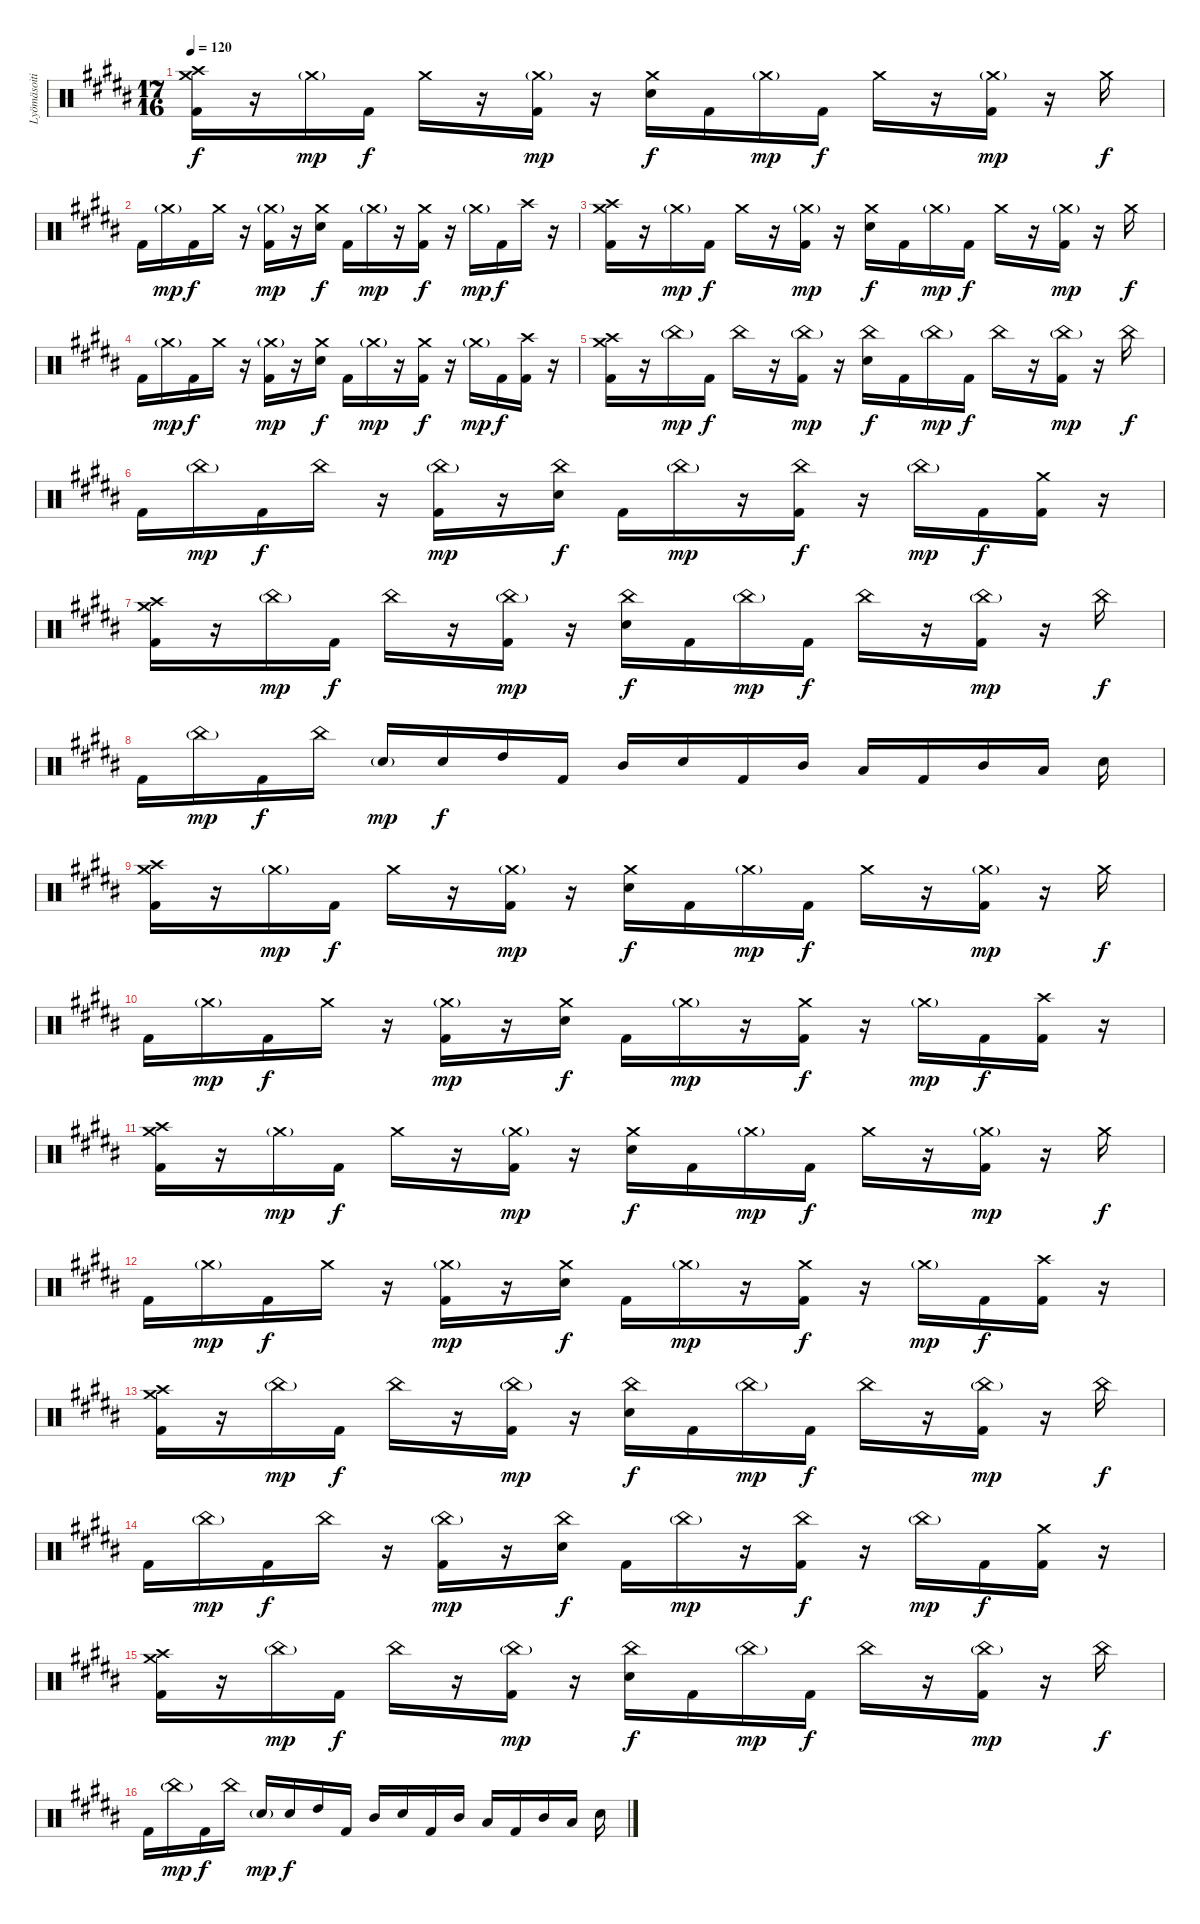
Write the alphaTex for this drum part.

\track ("Lyömäsoitin" "Lyömäsoiti") {instrument percussion}
\staff {score}
\articulation defaults
\ts (17 16)
\tempo 120
\clef neutral
\ks g#minor
("Crash medium (hit)" "Crash high (hit)" "Kick (hit) 2").16{dy f} r.16 "Crash medium (hit)"{g}.16{dy mp} "Kick (hit) 2".16{dy f} "Crash medium (hit)".16 r.16 ("Crash medium (hit)"{g} "Kick (hit) 2").16{dy mp} r.16 ("Crash medium (hit)" "Electric Snare (hit)").16{dy f} "Kick (hit) 2".16 "Crash medium (hit)"{g}.16{dy mp} "Kick (hit) 2".16{dy f} "Crash medium (hit)".16 r.16 ("Crash medium (hit)"{g} "Kick (hit) 2").16{dy mp} r.16 "Crash medium (hit)".16{dy f} |
"Kick (hit) 2".16 "Crash medium (hit)"{g}.16{dy mp} "Kick (hit) 2".16{dy f} "Crash medium (hit)".16 r.16 ("Crash medium (hit)"{g} "Kick (hit) 2").16{dy mp} r.16 ("Crash medium (hit)" "Electric Snare (hit)").16{dy f} "Kick (hit) 2".16 "Crash medium (hit)"{g}.16{dy mp} r.16 ("Crash medium (hit)" "Kick (hit) 2").16{dy f} r.16 "Crash medium (hit)"{g}.16{dy mp} "Kick (hit) 2".16{dy f} "Crash high (hit)".16 r.16 |
("Crash medium (hit)" "Crash high (hit)" "Kick (hit) 2").16 r.16 "Crash medium (hit)"{g}.16{dy mp} "Kick (hit) 2".16{dy f} "Crash medium (hit)".16 r.16 ("Crash medium (hit)"{g} "Kick (hit) 2").16{dy mp} r.16 ("Crash medium (hit)" "Electric Snare (hit)").16{dy f} "Kick (hit) 2".16 "Crash medium (hit)"{g}.16{dy mp} "Kick (hit) 2".16{dy f} "Crash medium (hit)".16 r.16 ("Crash medium (hit)"{g} "Kick (hit) 2").16{dy mp} r.16 "Crash medium (hit)".16{dy f} |
"Kick (hit) 2".16 "Crash medium (hit)"{g}.16{dy mp} "Kick (hit) 2".16{dy f} "Crash medium (hit)".16 r.16 ("Crash medium (hit)"{g} "Kick (hit) 2").16{dy mp} r.16 ("Crash medium (hit)" "Electric Snare (hit)").16{dy f} "Kick (hit) 2".16 "Crash medium (hit)"{g}.16{dy mp} r.16 ("Crash medium (hit)" "Kick (hit) 2").16{dy f} r.16 "Crash medium (hit)"{g}.16{dy mp} "Kick (hit) 2".16{dy f} ("Crash high (hit)" "Kick (hit) 2").16 r.16 |
("Crash medium (hit)" "Crash high (hit)" "Kick (hit) 2").16 r.16 "China (hit)"{g}.16{dy mp} "Kick (hit) 2".16{dy f} "China (hit)".16 r.16 ("China (hit)"{g} "Kick (hit) 2").16{dy mp} r.16 ("China (hit)" "Electric Snare (hit)").16{dy f} "Kick (hit) 2".16 "China (hit)"{g}.16{dy mp} "Kick (hit) 2".16{dy f} "China (hit)".16 r.16 ("China (hit)"{g} "Kick (hit) 2").16{dy mp} r.16 "China (hit)".16{dy f} |
"Kick (hit) 2".16 "China (hit)"{g}.16{dy mp} "Kick (hit) 2".16{dy f} "China (hit)".16 r.16 ("China (hit)"{g} "Kick (hit) 2").16{dy mp} r.16 ("China (hit)" "Electric Snare (hit)").16{dy f} "Kick (hit) 2".16 "China (hit)"{g}.16{dy mp} r.16 ("China (hit)" "Kick (hit) 2").16{dy f} r.16 "China (hit)"{g}.16{dy mp} "Kick (hit) 2".16{dy f} ("Crash medium (hit)" "Kick (hit) 2").16 r.16 |
("Crash medium (hit)" "Crash high (hit)" "Kick (hit) 2").16 r.16 "China (hit)"{g}.16{dy mp} "Kick (hit) 2".16{dy f} "China (hit)".16 r.16 ("China (hit)"{g} "Kick (hit) 2").16{dy mp} r.16 ("China (hit)" "Electric Snare (hit)").16{dy f} "Kick (hit) 2".16 "China (hit)"{g}.16{dy mp} "Kick (hit) 2".16{dy f} "China (hit)".16 r.16 ("China (hit)"{g} "Kick (hit) 2").16{dy mp} r.16 "China (hit)".16{dy f} |
"Kick (hit) 2".16 "China (hit)"{g}.16{dy mp} "Kick (hit) 2".16{dy f} "China (hit)".16 "Electric Snare (hit)"{g}.16{dy mp} "Electric Snare (hit)".16{dy f} "High Tom (hit)".16 "Kick (hit) 2".16 "Mid Tom (hit)".16 "Electric Snare (hit)".16 "Kick (hit) 2".16 "Mid Tom (hit)".16 "Low Tom (hit)".16 "Kick (hit) 2".16 "Mid Tom (hit)".16 "Low Tom (hit)".16 "Electric Snare (hit)".16 |
("Crash medium (hit)" "Crash high (hit)" "Kick (hit) 2").16 r.16 "Crash medium (hit)"{g}.16{dy mp} "Kick (hit) 2".16{dy f} "Crash medium (hit)".16 r.16 ("Crash medium (hit)"{g} "Kick (hit) 2").16{dy mp} r.16 ("Crash medium (hit)" "Electric Snare (hit)").16{dy f} "Kick (hit) 2".16 "Crash medium (hit)"{g}.16{dy mp} "Kick (hit) 2".16{dy f} "Crash medium (hit)".16 r.16 ("Crash medium (hit)"{g} "Kick (hit) 2").16{dy mp} r.16 "Crash medium (hit)".16{dy f} |
"Kick (hit) 2".16 "Crash medium (hit)"{g}.16{dy mp} "Kick (hit) 2".16{dy f} "Crash medium (hit)".16 r.16 ("Crash medium (hit)"{g} "Kick (hit) 2").16{dy mp} r.16 ("Crash medium (hit)" "Electric Snare (hit)").16{dy f} "Kick (hit) 2".16 "Crash medium (hit)"{g}.16{dy mp} r.16 ("Crash medium (hit)" "Kick (hit) 2").16{dy f} r.16 "Crash medium (hit)"{g}.16{dy mp} "Kick (hit) 2".16{dy f} ("Crash high (hit)" "Kick (hit) 2").16 r.16 |
("Crash medium (hit)" "Crash high (hit)" "Kick (hit) 2").16 r.16 "Crash medium (hit)"{g}.16{dy mp} "Kick (hit) 2".16{dy f} "Crash medium (hit)".16 r.16 ("Crash medium (hit)"{g} "Kick (hit) 2").16{dy mp} r.16 ("Crash medium (hit)" "Electric Snare (hit)").16{dy f} "Kick (hit) 2".16 "Crash medium (hit)"{g}.16{dy mp} "Kick (hit) 2".16{dy f} "Crash medium (hit)".16 r.16 ("Crash medium (hit)"{g} "Kick (hit) 2").16{dy mp} r.16 "Crash medium (hit)".16{dy f} |
"Kick (hit) 2".16 "Crash medium (hit)"{g}.16{dy mp} "Kick (hit) 2".16{dy f} "Crash medium (hit)".16 r.16 ("Crash medium (hit)"{g} "Kick (hit) 2").16{dy mp} r.16 ("Crash medium (hit)" "Electric Snare (hit)").16{dy f} "Kick (hit) 2".16 "Crash medium (hit)"{g}.16{dy mp} r.16 ("Crash medium (hit)" "Kick (hit) 2").16{dy f} r.16 "Crash medium (hit)"{g}.16{dy mp} "Kick (hit) 2".16{dy f} ("Crash high (hit)" "Kick (hit) 2").16 r.16 |
("Crash medium (hit)" "Crash high (hit)" "Kick (hit) 2").16 r.16 "China (hit)"{g}.16{dy mp} "Kick (hit) 2".16{dy f} "China (hit)".16 r.16 ("China (hit)"{g} "Kick (hit) 2").16{dy mp} r.16 ("China (hit)" "Electric Snare (hit)").16{dy f} "Kick (hit) 2".16 "China (hit)"{g}.16{dy mp} "Kick (hit) 2".16{dy f} "China (hit)".16 r.16 ("China (hit)"{g} "Kick (hit) 2").16{dy mp} r.16 "China (hit)".16{dy f} |
"Kick (hit) 2".16 "China (hit)"{g}.16{dy mp} "Kick (hit) 2".16{dy f} "China (hit)".16 r.16 ("China (hit)"{g} "Kick (hit) 2").16{dy mp} r.16 ("China (hit)" "Electric Snare (hit)").16{dy f} "Kick (hit) 2".16 "China (hit)"{g}.16{dy mp} r.16 ("China (hit)" "Kick (hit) 2").16{dy f} r.16 "China (hit)"{g}.16{dy mp} "Kick (hit) 2".16{dy f} ("Crash medium (hit)" "Kick (hit) 2").16 r.16 |
("Crash medium (hit)" "Crash high (hit)" "Kick (hit) 2").16 r.16 "China (hit)"{g}.16{dy mp} "Kick (hit) 2".16{dy f} "China (hit)".16 r.16 ("China (hit)"{g} "Kick (hit) 2").16{dy mp} r.16 ("China (hit)" "Electric Snare (hit)").16{dy f} "Kick (hit) 2".16 "China (hit)"{g}.16{dy mp} "Kick (hit) 2".16{dy f} "China (hit)".16 r.16 ("China (hit)"{g} "Kick (hit) 2").16{dy mp} r.16 "China (hit)".16{dy f} |
"Kick (hit) 2".16 "China (hit)"{g}.16{dy mp} "Kick (hit) 2".16{dy f} "China (hit)".16 "Electric Snare (hit)"{g}.16{dy mp} "Electric Snare (hit)".16{dy f} "High Tom (hit)".16 "Kick (hit) 2".16 "Mid Tom (hit)".16 "Electric Snare (hit)".16 "Kick (hit) 2".16 "Mid Tom (hit)".16 "Low Tom (hit)".16 "Kick (hit) 2".16 "Mid Tom (hit)".16 "Low Tom (hit)".16 "Electric Snare (hit)".16
